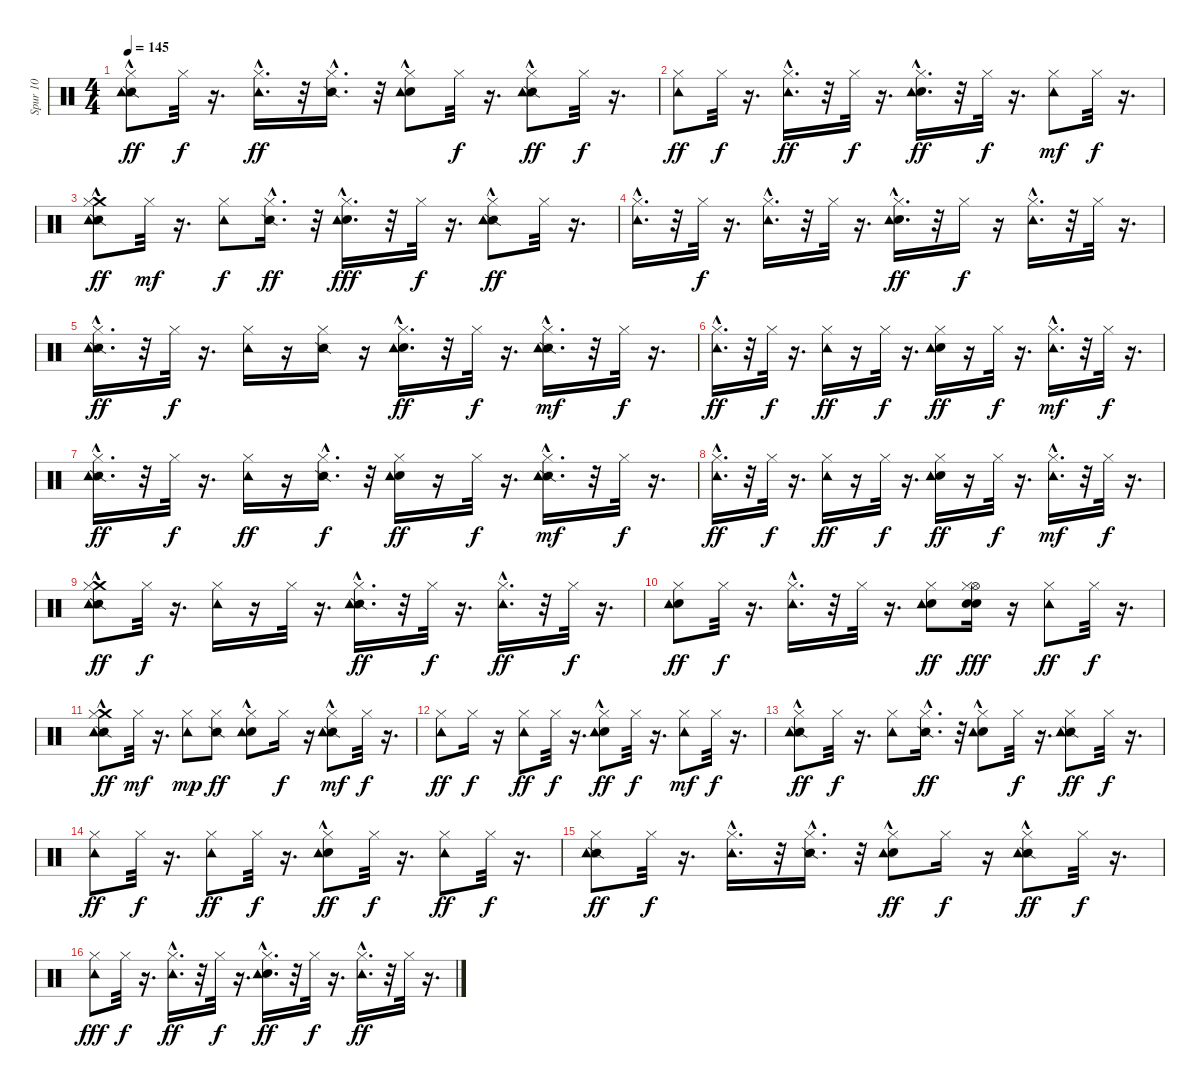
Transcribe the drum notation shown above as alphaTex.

\track ("Spur 10" "Spur 10") {instrument percussion}
\staff {score}
\articulation defaults
\ts (4 4)
\tempo 145
\clef neutral
\ks c
("Snare (side stick) 2"{hac} "Tambourine (hit)" "Hi-Hat (closed)").8{dy ff} "Hi-Hat (closed)".32{dy f} r.16{d} ("Tambourine (hit)"{hac} "Hi-Hat (closed)").16{d dy ff} r.32 ("Snare (side stick) 2"{hac} "Hi-Hat (closed)").16{d} r.32 ("Electric Snare (hit)"{hac} "Tambourine (hit)" "Hi-Hat (closed)").8 "Hi-Hat (closed)".32{dy f} r.16{d} ("Snare (side stick) 2"{hac} "Tambourine (hit)" "Hi-Hat (closed)").8{dy ff} "Hi-Hat (closed)".32{dy f} r.16{d} |
("Tambourine (hit)" "Hi-Hat (closed)").8{dy ff} "Hi-Hat (closed)".32{dy f} r.16{d} ("Tambourine (hit)"{hac} "Hi-Hat (closed)").16{d dy ff} r.32 "Hi-Hat (closed)".32{dy f} r.16{d} ("Electric Snare (hit)" "Tambourine (hit)"{hac} "Hi-Hat (closed)").16{d dy ff} r.32 "Hi-Hat (closed)".32{dy f} r.16{d} ("Tambourine (hit)" "Hi-Hat (closed)").8{dy mf} "Hi-Hat (closed)".32{dy f} r.16{d} |
("Snare (side stick) 2"{hac} "Crash medium (hit)" "Tambourine (hit)" "Hi-Hat (closed)").8{dy ff} "Hi-Hat (closed)".32{dy mf} r.16{d} ("Tambourine (hit)" "Hi-Hat (closed)").8{dy f} ("Snare (side stick) 2"{hac} "Hi-Hat (closed)").16{d dy ff} r.32 ("Electric Snare (hit)"{hac} "Tambourine (hit)"{hac} "Hi-Hat (closed)").16{d dy fff} r.32 "Hi-Hat (closed)".32{dy f} r.16{d} ("Snare (side stick) 2"{hac} "Tambourine (hit)" "Hi-Hat (closed)").8{dy ff} "Hi-Hat (closed)".32 r.16{d} |
("Tambourine (hit)"{hac} "Hi-Hat (closed)").16{d} r.32 "Hi-Hat (closed)".32{dy f} r.16{d} ("Tambourine (hit)"{hac} "Hi-Hat (closed)").16{d} r.32 "Hi-Hat (closed)".32 r.16{d} ("Electric Snare (hit)" "Tambourine (hit)"{hac} "Hi-Hat (closed)").16{d dy ff} r.32 "Hi-Hat (closed)".16{dy f} r.16 ("Tambourine (hit)"{hac} "Hi-Hat (closed)").16{d} r.32 "Hi-Hat (closed)".32 r.16{d} |
("Snare (side stick) 2" "Tambourine (hit)"{hac} "Hi-Hat (closed)").16{d dy ff} r.32 "Hi-Hat (closed)".32{dy f} r.16{d} ("Tambourine (hit)" "Hi-Hat (closed)").16 r.16 ("Snare (side stick) 2" "Hi-Hat (closed)").16 r.16 ("Electric Snare (hit)" "Tambourine (hit)"{hac} "Hi-Hat (closed)").16{d dy ff} r.32 "Hi-Hat (closed)".32{dy f} r.16{d} ("Snare (side stick) 2"{hac} "Tambourine (hit)"{hac} "Hi-Hat (closed)").16{d dy mf} r.32 "Hi-Hat (closed)".32{dy f} r.16{d} |
("Tambourine (hit)"{hac} "Hi-Hat (closed)").16{d dy ff} r.32 "Hi-Hat (closed)".32{dy f} r.16{d} ("Tambourine (hit)" "Hi-Hat (closed)").16{dy ff} r.16 "Hi-Hat (closed)".32{dy f} r.16{d} ("Electric Snare (hit)" "Tambourine (hit)" "Hi-Hat (closed)").16{dy ff} r.16 "Hi-Hat (closed)".32{dy f} r.16{d} ("Tambourine (hit)"{hac} "Hi-Hat (closed)").16{d dy mf} r.32 "Hi-Hat (closed)".32{dy f} r.16{d} |
("Snare (side stick) 2"{hac} "Tambourine (hit)"{hac} "Hi-Hat (closed)").16{d dy ff} r.32 "Hi-Hat (closed)".32{dy f} r.16{d} ("Tambourine (hit)" "Hi-Hat (closed)").16{dy ff} r.16 ("Snare (side stick) 2"{hac} "Hi-Hat (closed)").16{d dy f} r.32 ("Electric Snare (hit)" "Tambourine (hit)" "Hi-Hat (closed)").16{dy ff} r.16 "Hi-Hat (closed)".32{dy f} r.16{d} ("Snare (side stick) 2"{hac} "Tambourine (hit)"{hac} "Hi-Hat (closed)").16{d dy mf} r.32 "Hi-Hat (closed)".32{dy f} r.16{d} |
("Tambourine (hit)"{hac} "Hi-Hat (closed)").16{d dy ff} r.32 "Hi-Hat (closed)".32{dy f} r.16{d} ("Tambourine (hit)" "Hi-Hat (closed)").16{dy ff} r.16 "Hi-Hat (closed)".32{dy f} r.16{d} ("Electric Snare (hit)" "Tambourine (hit)" "Hi-Hat (closed)").16{dy ff} r.16 "Hi-Hat (closed)".32{dy f} r.16{d} ("Tambourine (hit)"{hac} "Hi-Hat (closed)").16{d dy mf} r.32 "Hi-Hat (closed)".32{dy f} r.16{d} |
("Snare (side stick) 2"{hac} "Crash medium (hit)" "Tambourine (hit)"{hac} "Hi-Hat (closed)").8{dy ff} "Hi-Hat (closed)".32{dy f} r.16{d} ("Tambourine (hit)" "Hi-Hat (closed)").16 r.16 "Hi-Hat (closed)".32 r.16{d} ("Snare (side stick) 2"{hac} "Tambourine (hit)" "Hi-Hat (closed)").16{d dy ff} r.32 "Hi-Hat (closed)".32{dy f} r.16{d} ("Tambourine (hit)"{hac} "Hi-Hat (closed)").16{d dy ff} r.32 "Hi-Hat (closed)".32{dy f} r.16{d} |
("Electric Snare (hit)" "Tambourine (hit)" "Hi-Hat (closed)").8{dy ff} "Hi-Hat (closed)".32{dy f} r.16{d} ("Tambourine (hit)"{hac} "Hi-Hat (closed)").16{d} r.32 "Hi-Hat (closed)".32 r.16{d} ("Snare (hit) 2" "Tambourine (hit)" "Hi-Hat (closed)").8{dy ff} ("Hand Clap (hit)" "Snare (hit) 2" "Hi-Hat (open)" "Hi-Hat (closed)").16{dy fff} r.16 ("Tambourine (hit)" "Hi-Hat (closed)").8{dy ff} "Hi-Hat (closed)".32{dy f} r.16{d} |
("Crash medium (hit)"{hac} "Snare (side stick) 2" "Tambourine (hit)" "Hi-Hat (closed)").8{dy ff} "Hi-Hat (closed)".32{dy mf} r.16{d} ("Tambourine (hit)" "Hi-Hat (closed)").8{dy mp} ("Snare (side stick) 2" "Hi-Hat (closed)").8{dy ff} ("Electric Snare (hit)"{hac} "Tambourine (hit)" "Hi-Hat (closed)").8 "Hi-Hat (closed)".16{dy f} r.16 ("Snare (side stick) 2"{hac} "Tambourine (hit)" "Hi-Hat (closed)").8{dy mf} "Hi-Hat (closed)".32{dy f} r.16{d} |
("Tambourine (hit)" "Hi-Hat (closed)").8{dy ff} "Hi-Hat (closed)".16{dy f} r.16 ("Hi-Hat (closed)" "Tambourine (hit)").8{dy ff} "Hi-Hat (closed)".32{dy f} r.16{d} ("Electric Snare (hit)"{hac} "Tambourine (hit)" "Hi-Hat (closed)").8{dy ff} "Hi-Hat (closed)".32{dy f} r.16{d} ("Tambourine (hit)" "Hi-Hat (closed)").8{dy mf} "Hi-Hat (closed)".32{dy f} r.16{d} |
("Snare (side stick) 2"{hac} "Tambourine (hit)" "Hi-Hat (closed)").8{dy ff} "Hi-Hat (closed)".32{dy f} r.16{d} ("Tambourine (hit)" "Hi-Hat (closed)").8 ("Snare (side stick) 2"{hac} "Hi-Hat (closed)").16{d dy ff} r.32 ("Electric Snare (hit)"{hac} "Tambourine (hit)" "Hi-Hat (closed)").8 "Hi-Hat (closed)".32{dy f} r.16{d} ("Snare (side stick) 2" "Tambourine (hit)" "Hi-Hat (closed)").8{dy ff} "Hi-Hat (closed)".32{dy f} r.16{d} |
("Tambourine (hit)" "Hi-Hat (closed)").8{dy ff} "Hi-Hat (closed)".32{dy f} r.16{d} ("Tambourine (hit)" "Hi-Hat (closed)").8{dy ff} "Hi-Hat (closed)".32{dy f} r.16{d} ("Electric Snare (hit)"{hac} "Tambourine (hit)" "Hi-Hat (closed)").8{dy ff} "Hi-Hat (closed)".32{dy f} r.16{d} ("Tambourine (hit)" "Hi-Hat (closed)").8{dy ff} "Hi-Hat (closed)".32{dy f} r.16{d} |
("Snare (side stick) 2" "Tambourine (hit)" "Hi-Hat (closed)").8{dy ff} "Hi-Hat (closed)".32{dy f} r.16{d} ("Tambourine (hit)"{hac} "Hi-Hat (closed)").16{d} r.32 ("Snare (side stick) 2"{hac} "Hi-Hat (closed)").16{d} r.32 ("Electric Snare (hit)"{hac} "Tambourine (hit)" "Hi-Hat (closed)").8{dy ff} "Hi-Hat (closed)".16{dy f} r.16 ("Snare (side stick) 2"{hac} "Tambourine (hit)" "Hi-Hat (closed)").8{dy ff} "Hi-Hat (closed)".32{dy f} r.16{d} |
("Tambourine (hit)" "Hi-Hat (closed)").8{dy fff} "Hi-Hat (closed)".32{dy f} r.16{d} ("Tambourine (hit)"{hac} "Hi-Hat (closed)").16{d dy ff} r.32 "Hi-Hat (closed)".32{dy f} r.16{d} ("Electric Snare (hit)" "Tambourine (hit)"{hac} "Hi-Hat (closed)").16{d dy ff} r.32 "Hi-Hat (closed)".32{dy f} r.16{d} ("Tambourine (hit)"{hac} "Hi-Hat (closed)").16{d dy ff} r.32 "Hi-Hat (closed)".32 r.16{d}
